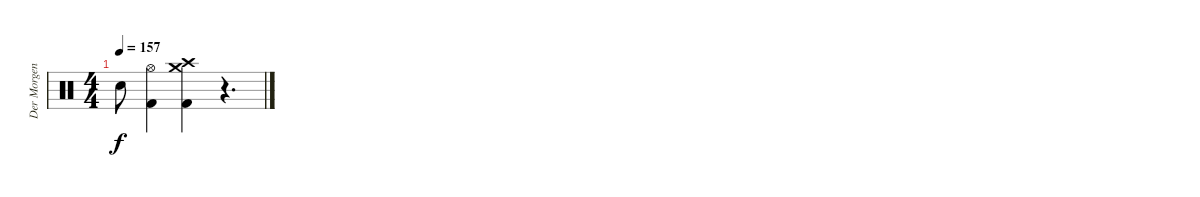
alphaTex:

\track ("Der Morgenstern" "Der Morgen") {instrument percussion}
\staff {score}
\articulation defaults
\ts (4 4)
\tempo 157
\clef neutral
\ks c "Electric Snare (hit)".8{dy f}
("Hi-Hat (open)" "Kick (hit) 2").4 ("Crash high (hit)" "Crash medium (hit)" "Kick (hit) 2").4 r.4{d}
